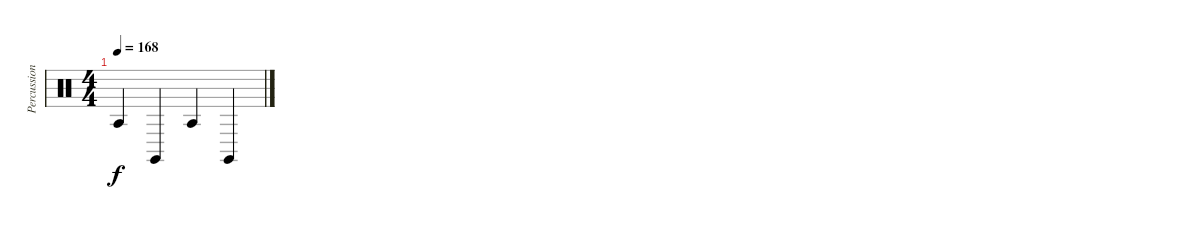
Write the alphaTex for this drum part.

\track ("Percussion" "Percussion") {instrument percussion}
\staff {score}
\articulation defaults
\ts (4 4)
\tempo 168
\clef neutral
\ks c "Agogo tow (hit)".4{dy f} "Claves (hit)".4 "Agogo tow (hit)".4 "Claves (hit)".4
